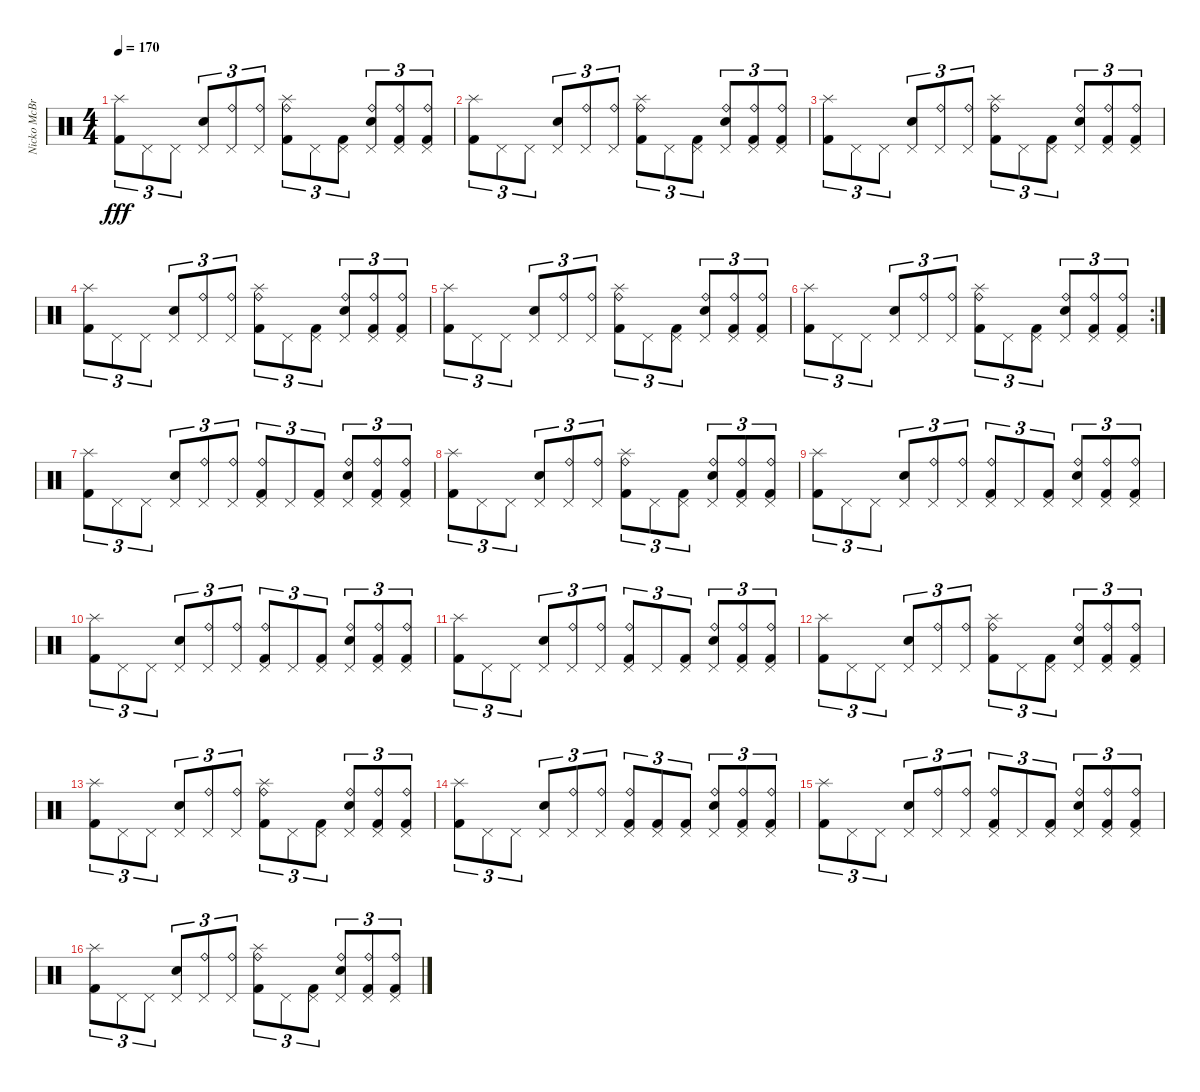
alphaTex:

\track ("Nicko McBrian (Drums)" "Nicko McBr") {instrument percussion}
\staff {score}
\articulation defaults
\ts (4 4)
\tempo 170
\clef neutral
\ks c
("Splash (hit)" "Kick (hit) 2").8{tu (3 2) dy fff} "Pedal Hi-Hat (hit)".8{tu (3 2)} "Pedal Hi-Hat (hit)".8{tu (3 2)} ("Pedal Hi-Hat (hit)" "Snare (hit) 2").8{tu (3 2)} ("Pedal Hi-Hat (hit)" "Ride (bell)").8{tu (3 2)} ("Pedal Hi-Hat (hit)" "Ride (bell)").8{tu (3 2)} ("Splash (hit)" "Kick (hit) 2" "Ride (bell)").8{tu (3 2)} "Pedal Hi-Hat (hit)".8{tu (3 2)} ("Pedal Hi-Hat (hit)" "Kick (hit) 2").8{tu (3 2)} ("Pedal Hi-Hat (hit)" "Snare (hit) 2" "Ride (bell)").8{tu (3 2)} ("Pedal Hi-Hat (hit)" "Kick (hit) 2" "Ride (bell)").8{tu (3 2)} ("Pedal Hi-Hat (hit)" "Kick (hit) 2" "Ride (bell)").8{tu (3 2)} |
("Splash (hit)" "Kick (hit) 2").8{tu (3 2)} "Pedal Hi-Hat (hit)".8{tu (3 2)} "Pedal Hi-Hat (hit)".8{tu (3 2)} ("Pedal Hi-Hat (hit)" "Snare (hit) 2").8{tu (3 2)} ("Pedal Hi-Hat (hit)" "Ride (bell)").8{tu (3 2)} ("Pedal Hi-Hat (hit)" "Ride (bell)").8{tu (3 2)} ("Splash (hit)" "Kick (hit) 2" "Ride (bell)").8{tu (3 2)} "Pedal Hi-Hat (hit)".8{tu (3 2)} ("Pedal Hi-Hat (hit)" "Kick (hit) 2").8{tu (3 2)} ("Pedal Hi-Hat (hit)" "Snare (hit) 2" "Ride (bell)").8{tu (3 2)} ("Pedal Hi-Hat (hit)" "Kick (hit) 2" "Ride (bell)").8{tu (3 2)} ("Pedal Hi-Hat (hit)" "Kick (hit) 2" "Ride (bell)").8{tu (3 2)} |
("Splash (hit)" "Kick (hit) 2").8{tu (3 2)} "Pedal Hi-Hat (hit)".8{tu (3 2)} "Pedal Hi-Hat (hit)".8{tu (3 2)} ("Pedal Hi-Hat (hit)" "Snare (hit) 2").8{tu (3 2)} ("Pedal Hi-Hat (hit)" "Ride (bell)").8{tu (3 2)} ("Pedal Hi-Hat (hit)" "Ride (bell)").8{tu (3 2)} ("Splash (hit)" "Kick (hit) 2" "Ride (bell)").8{tu (3 2)} "Pedal Hi-Hat (hit)".8{tu (3 2)} ("Pedal Hi-Hat (hit)" "Kick (hit) 2").8{tu (3 2)} ("Pedal Hi-Hat (hit)" "Snare (hit) 2" "Ride (bell)").8{tu (3 2)} ("Pedal Hi-Hat (hit)" "Kick (hit) 2" "Ride (bell)").8{tu (3 2)} ("Pedal Hi-Hat (hit)" "Kick (hit) 2" "Ride (bell)").8{tu (3 2)} |
("Splash (hit)" "Kick (hit) 2").8{tu (3 2)} "Pedal Hi-Hat (hit)".8{tu (3 2)} "Pedal Hi-Hat (hit)".8{tu (3 2)} ("Pedal Hi-Hat (hit)" "Snare (hit) 2").8{tu (3 2)} ("Pedal Hi-Hat (hit)" "Ride (bell)").8{tu (3 2)} ("Pedal Hi-Hat (hit)" "Ride (bell)").8{tu (3 2)} ("Splash (hit)" "Kick (hit) 2" "Ride (bell)").8{tu (3 2)} "Pedal Hi-Hat (hit)".8{tu (3 2)} ("Pedal Hi-Hat (hit)" "Kick (hit) 2").8{tu (3 2)} ("Pedal Hi-Hat (hit)" "Snare (hit) 2" "Ride (bell)").8{tu (3 2)} ("Pedal Hi-Hat (hit)" "Kick (hit) 2" "Ride (bell)").8{tu (3 2)} ("Pedal Hi-Hat (hit)" "Kick (hit) 2" "Ride (bell)").8{tu (3 2)} |
("Splash (hit)" "Kick (hit) 2").8{tu (3 2)} "Pedal Hi-Hat (hit)".8{tu (3 2)} "Pedal Hi-Hat (hit)".8{tu (3 2)} ("Pedal Hi-Hat (hit)" "Snare (hit) 2").8{tu (3 2)} ("Pedal Hi-Hat (hit)" "Ride (bell)").8{tu (3 2)} ("Pedal Hi-Hat (hit)" "Ride (bell)").8{tu (3 2)} ("Splash (hit)" "Kick (hit) 2" "Ride (bell)").8{tu (3 2)} "Pedal Hi-Hat (hit)".8{tu (3 2)} ("Pedal Hi-Hat (hit)" "Kick (hit) 2").8{tu (3 2)} ("Pedal Hi-Hat (hit)" "Snare (hit) 2" "Ride (bell)").8{tu (3 2)} ("Pedal Hi-Hat (hit)" "Kick (hit) 2" "Ride (bell)").8{tu (3 2)} ("Pedal Hi-Hat (hit)" "Kick (hit) 2" "Ride (bell)").8{tu (3 2)} |
\rc 2
("Splash (hit)" "Kick (hit) 2").8{tu (3 2)} "Pedal Hi-Hat (hit)".8{tu (3 2)} "Pedal Hi-Hat (hit)".8{tu (3 2)} ("Pedal Hi-Hat (hit)" "Snare (hit) 2").8{tu (3 2)} ("Pedal Hi-Hat (hit)" "Ride (bell)").8{tu (3 2)} ("Pedal Hi-Hat (hit)" "Ride (bell)").8{tu (3 2)} ("Splash (hit)" "Kick (hit) 2" "Ride (bell)").8{tu (3 2)} "Pedal Hi-Hat (hit)".8{tu (3 2)} ("Pedal Hi-Hat (hit)" "Kick (hit) 2").8{tu (3 2)} ("Pedal Hi-Hat (hit)" "Snare (hit) 2" "Ride (bell)").8{tu (3 2)} ("Pedal Hi-Hat (hit)" "Kick (hit) 2" "Ride (bell)").8{tu (3 2)} ("Pedal Hi-Hat (hit)" "Kick (hit) 2" "Ride (bell)").8{tu (3 2)} |
("Splash (hit)" "Kick (hit) 2").8{tu (3 2)} "Pedal Hi-Hat (hit)".8{tu (3 2)} "Pedal Hi-Hat (hit)".8{tu (3 2)} ("Pedal Hi-Hat (hit)" "Snare (hit) 2").8{tu (3 2)} ("Pedal Hi-Hat (hit)" "Ride (bell)").8{tu (3 2)} ("Pedal Hi-Hat (hit)" "Ride (bell)").8{tu (3 2)} ("Pedal Hi-Hat (hit)" "Kick (hit) 2" "Ride (bell)").8{tu (3 2)} "Pedal Hi-Hat (hit)".8{tu (3 2)} ("Pedal Hi-Hat (hit)" "Kick (hit) 2").8{tu (3 2)} ("Pedal Hi-Hat (hit)" "Snare (hit) 2" "Ride (bell)").8{tu (3 2)} ("Pedal Hi-Hat (hit)" "Kick (hit) 2" "Ride (bell)").8{tu (3 2)} ("Pedal Hi-Hat (hit)" "Kick (hit) 2" "Ride (bell)").8{tu (3 2)} |
("Splash (hit)" "Kick (hit) 2").8{tu (3 2)} "Pedal Hi-Hat (hit)".8{tu (3 2)} "Pedal Hi-Hat (hit)".8{tu (3 2)} ("Pedal Hi-Hat (hit)" "Snare (hit) 2").8{tu (3 2)} ("Pedal Hi-Hat (hit)" "Ride (bell)").8{tu (3 2)} ("Pedal Hi-Hat (hit)" "Ride (bell)").8{tu (3 2)} ("Splash (hit)" "Kick (hit) 2" "Ride (bell)").8{tu (3 2)} "Pedal Hi-Hat (hit)".8{tu (3 2)} ("Pedal Hi-Hat (hit)" "Kick (hit) 2").8{tu (3 2)} ("Pedal Hi-Hat (hit)" "Snare (hit) 2" "Ride (bell)").8{tu (3 2)} ("Pedal Hi-Hat (hit)" "Kick (hit) 2" "Ride (bell)").8{tu (3 2)} ("Pedal Hi-Hat (hit)" "Kick (hit) 2" "Ride (bell)").8{tu (3 2)} |
("Splash (hit)" "Kick (hit) 2").8{tu (3 2)} "Pedal Hi-Hat (hit)".8{tu (3 2)} "Pedal Hi-Hat (hit)".8{tu (3 2)} ("Pedal Hi-Hat (hit)" "Snare (hit) 2").8{tu (3 2)} ("Pedal Hi-Hat (hit)" "Ride (bell)").8{tu (3 2)} ("Pedal Hi-Hat (hit)" "Ride (bell)").8{tu (3 2)} ("Pedal Hi-Hat (hit)" "Kick (hit) 2" "Ride (bell)").8{tu (3 2)} "Pedal Hi-Hat (hit)".8{tu (3 2)} ("Pedal Hi-Hat (hit)" "Kick (hit) 2").8{tu (3 2)} ("Pedal Hi-Hat (hit)" "Snare (hit) 2" "Ride (bell)").8{tu (3 2)} ("Pedal Hi-Hat (hit)" "Kick (hit) 2" "Ride (bell)").8{tu (3 2)} ("Pedal Hi-Hat (hit)" "Kick (hit) 2" "Ride (bell)").8{tu (3 2)} |
("Splash (hit)" "Kick (hit) 2").8{tu (3 2)} "Pedal Hi-Hat (hit)".8{tu (3 2)} "Pedal Hi-Hat (hit)".8{tu (3 2)} ("Pedal Hi-Hat (hit)" "Snare (hit) 2").8{tu (3 2)} ("Pedal Hi-Hat (hit)" "Ride (bell)").8{tu (3 2)} ("Pedal Hi-Hat (hit)" "Ride (bell)").8{tu (3 2)} ("Pedal Hi-Hat (hit)" "Kick (hit) 2" "Ride (bell)").8{tu (3 2)} "Pedal Hi-Hat (hit)".8{tu (3 2)} ("Pedal Hi-Hat (hit)" "Kick (hit) 2").8{tu (3 2)} ("Pedal Hi-Hat (hit)" "Snare (hit) 2" "Ride (bell)").8{tu (3 2)} ("Pedal Hi-Hat (hit)" "Kick (hit) 2" "Ride (bell)").8{tu (3 2)} ("Pedal Hi-Hat (hit)" "Kick (hit) 2" "Ride (bell)").8{tu (3 2)} |
("Splash (hit)" "Kick (hit) 2").8{tu (3 2)} "Pedal Hi-Hat (hit)".8{tu (3 2)} "Pedal Hi-Hat (hit)".8{tu (3 2)} ("Pedal Hi-Hat (hit)" "Snare (hit) 2").8{tu (3 2)} ("Pedal Hi-Hat (hit)" "Ride (bell)").8{tu (3 2)} ("Pedal Hi-Hat (hit)" "Ride (bell)").8{tu (3 2)} ("Pedal Hi-Hat (hit)" "Kick (hit) 2" "Ride (bell)").8{tu (3 2)} "Pedal Hi-Hat (hit)".8{tu (3 2)} ("Pedal Hi-Hat (hit)" "Kick (hit) 2").8{tu (3 2)} ("Pedal Hi-Hat (hit)" "Snare (hit) 2" "Ride (bell)").8{tu (3 2)} ("Pedal Hi-Hat (hit)" "Kick (hit) 2" "Ride (bell)").8{tu (3 2)} ("Pedal Hi-Hat (hit)" "Kick (hit) 2" "Ride (bell)").8{tu (3 2)} |
("Splash (hit)" "Kick (hit) 2").8{tu (3 2)} "Pedal Hi-Hat (hit)".8{tu (3 2)} "Pedal Hi-Hat (hit)".8{tu (3 2)} ("Pedal Hi-Hat (hit)" "Snare (hit) 2").8{tu (3 2)} ("Pedal Hi-Hat (hit)" "Ride (bell)").8{tu (3 2)} ("Pedal Hi-Hat (hit)" "Ride (bell)").8{tu (3 2)} ("Splash (hit)" "Kick (hit) 2" "Ride (bell)").8{tu (3 2)} "Pedal Hi-Hat (hit)".8{tu (3 2)} ("Pedal Hi-Hat (hit)" "Kick (hit) 2").8{tu (3 2)} ("Pedal Hi-Hat (hit)" "Snare (hit) 2" "Ride (bell)").8{tu (3 2)} ("Pedal Hi-Hat (hit)" "Kick (hit) 2" "Ride (bell)").8{tu (3 2)} ("Pedal Hi-Hat (hit)" "Kick (hit) 2" "Ride (bell)").8{tu (3 2)} |
("Splash (hit)" "Kick (hit) 2").8{tu (3 2)} "Pedal Hi-Hat (hit)".8{tu (3 2)} "Pedal Hi-Hat (hit)".8{tu (3 2)} ("Pedal Hi-Hat (hit)" "Snare (hit) 2").8{tu (3 2)} ("Pedal Hi-Hat (hit)" "Ride (bell)").8{tu (3 2)} ("Pedal Hi-Hat (hit)" "Ride (bell)").8{tu (3 2)} ("Splash (hit)" "Kick (hit) 2" "Ride (bell)").8{tu (3 2)} "Pedal Hi-Hat (hit)".8{tu (3 2)} ("Pedal Hi-Hat (hit)" "Kick (hit) 2").8{tu (3 2)} ("Pedal Hi-Hat (hit)" "Snare (hit) 2" "Ride (bell)").8{tu (3 2)} ("Pedal Hi-Hat (hit)" "Kick (hit) 2" "Ride (bell)").8{tu (3 2)} ("Pedal Hi-Hat (hit)" "Kick (hit) 2" "Ride (bell)").8{tu (3 2)} |
("Splash (hit)" "Kick (hit) 2").8{tu (3 2)} "Pedal Hi-Hat (hit)".8{tu (3 2)} "Pedal Hi-Hat (hit)".8{tu (3 2)} ("Pedal Hi-Hat (hit)" "Snare (hit) 2").8{tu (3 2)} ("Pedal Hi-Hat (hit)" "Ride (bell)").8{tu (3 2)} ("Pedal Hi-Hat (hit)" "Ride (bell)").8{tu (3 2)} ("Pedal Hi-Hat (hit)" "Kick (hit) 2" "Ride (bell)").8{tu (3 2)} ("Pedal Hi-Hat (hit)" "Kick (hit) 2").8{tu (3 2)} ("Pedal Hi-Hat (hit)" "Kick (hit) 2").8{tu (3 2)} ("Pedal Hi-Hat (hit)" "Snare (hit) 2" "Ride (bell)").8{tu (3 2)} ("Pedal Hi-Hat (hit)" "Kick (hit) 2" "Ride (bell)").8{tu (3 2)} ("Pedal Hi-Hat (hit)" "Kick (hit) 2" "Ride (bell)").8{tu (3 2)} |
("Splash (hit)" "Kick (hit) 2").8{tu (3 2)} "Pedal Hi-Hat (hit)".8{tu (3 2)} "Pedal Hi-Hat (hit)".8{tu (3 2)} ("Pedal Hi-Hat (hit)" "Snare (hit) 2").8{tu (3 2)} ("Pedal Hi-Hat (hit)" "Ride (bell)").8{tu (3 2)} ("Pedal Hi-Hat (hit)" "Ride (bell)").8{tu (3 2)} ("Pedal Hi-Hat (hit)" "Kick (hit) 2" "Ride (bell)").8{tu (3 2)} "Pedal Hi-Hat (hit)".8{tu (3 2)} ("Pedal Hi-Hat (hit)" "Kick (hit) 2").8{tu (3 2)} ("Pedal Hi-Hat (hit)" "Snare (hit) 2" "Ride (bell)").8{tu (3 2)} ("Pedal Hi-Hat (hit)" "Kick (hit) 2" "Ride (bell)").8{tu (3 2)} ("Pedal Hi-Hat (hit)" "Kick (hit) 2" "Ride (bell)").8{tu (3 2)} |
("Splash (hit)" "Kick (hit) 2").8{tu (3 2)} "Pedal Hi-Hat (hit)".8{tu (3 2)} "Pedal Hi-Hat (hit)".8{tu (3 2)} ("Pedal Hi-Hat (hit)" "Snare (hit) 2").8{tu (3 2)} ("Pedal Hi-Hat (hit)" "Ride (bell)").8{tu (3 2)} ("Pedal Hi-Hat (hit)" "Ride (bell)").8{tu (3 2)} ("Splash (hit)" "Kick (hit) 2" "Ride (bell)").8{tu (3 2)} "Pedal Hi-Hat (hit)".8{tu (3 2)} ("Pedal Hi-Hat (hit)" "Kick (hit) 2").8{tu (3 2)} ("Pedal Hi-Hat (hit)" "Snare (hit) 2" "Ride (bell)").8{tu (3 2)} ("Pedal Hi-Hat (hit)" "Kick (hit) 2" "Ride (bell)").8{tu (3 2)} ("Pedal Hi-Hat (hit)" "Kick (hit) 2" "Ride (bell)").8{tu (3 2)}
